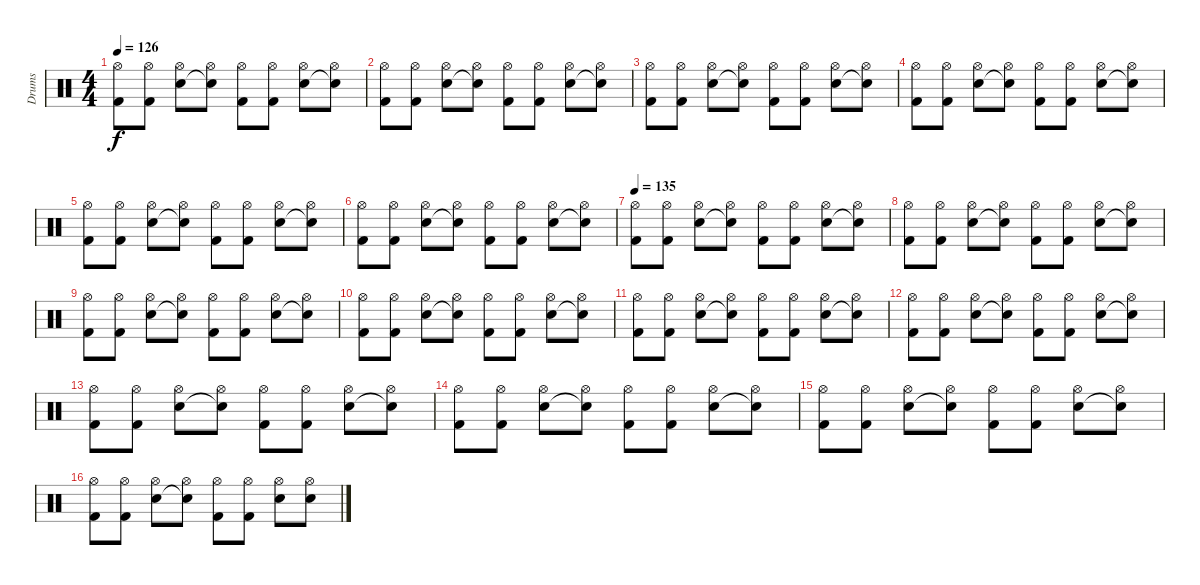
\track ("Drums" "Drums") {instrument percussion}
\staff {score}
\articulation defaults
\ts (4 4)
\tempo 126
\clef neutral
\ks c
("Hi-Hat (open)" "Kick (hit) 2").8{dy f} ("Hi-Hat (open)" "Kick (hit) 2").8 ("Hi-Hat (open)" "Snare (hit) 2").8 ("Hi-Hat (open)" "Snare (hit) 2"{t}).8 ("Hi-Hat (open)" "Kick (hit) 2").8 ("Hi-Hat (open)" "Kick (hit) 2").8 ("Hi-Hat (open)" "Snare (hit) 2").8 ("Hi-Hat (open)" "Snare (hit) 2"{t}).8 |
("Hi-Hat (open)" "Kick (hit) 2").8 ("Hi-Hat (open)" "Kick (hit) 2").8 ("Hi-Hat (open)" "Snare (hit) 2").8 ("Hi-Hat (open)" "Snare (hit) 2"{t}).8 ("Hi-Hat (open)" "Kick (hit) 2").8 ("Hi-Hat (open)" "Kick (hit) 2").8 ("Hi-Hat (open)" "Snare (hit) 2").8 ("Hi-Hat (open)" "Snare (hit) 2"{t}).8 |
("Hi-Hat (open)" "Kick (hit) 2").8 ("Hi-Hat (open)" "Kick (hit) 2").8 ("Hi-Hat (open)" "Snare (hit) 2").8 ("Hi-Hat (open)" "Snare (hit) 2"{t}).8 ("Hi-Hat (open)" "Kick (hit) 2").8 ("Hi-Hat (open)" "Kick (hit) 2").8 ("Hi-Hat (open)" "Snare (hit) 2").8 ("Hi-Hat (open)" "Snare (hit) 2"{t}).8 |
("Hi-Hat (open)" "Kick (hit) 2").8 ("Hi-Hat (open)" "Kick (hit) 2").8 ("Hi-Hat (open)" "Snare (hit) 2").8 ("Hi-Hat (open)" "Snare (hit) 2"{t}).8 ("Hi-Hat (open)" "Kick (hit) 2").8 ("Hi-Hat (open)" "Kick (hit) 2").8 ("Hi-Hat (open)" "Snare (hit) 2").8 ("Hi-Hat (open)" "Snare (hit) 2"{t}).8 |
("Hi-Hat (open)" "Kick (hit) 2").8 ("Hi-Hat (open)" "Kick (hit) 2").8 ("Hi-Hat (open)" "Snare (hit) 2").8 ("Hi-Hat (open)" "Snare (hit) 2"{t}).8 ("Hi-Hat (open)" "Kick (hit) 2").8 ("Hi-Hat (open)" "Kick (hit) 2").8 ("Hi-Hat (open)" "Snare (hit) 2").8 ("Hi-Hat (open)" "Snare (hit) 2"{t}).8 |
("Hi-Hat (open)" "Kick (hit) 2").8 ("Hi-Hat (open)" "Kick (hit) 2").8 ("Hi-Hat (open)" "Snare (hit) 2").8 ("Hi-Hat (open)" "Snare (hit) 2"{t}).8 ("Hi-Hat (open)" "Kick (hit) 2").8 ("Hi-Hat (open)" "Kick (hit) 2").8 ("Hi-Hat (open)" "Snare (hit) 2").8 ("Hi-Hat (open)" "Snare (hit) 2"{t}).8 |
\tempo 135
("Hi-Hat (open)" "Kick (hit) 2").8 ("Hi-Hat (open)" "Kick (hit) 2").8 ("Hi-Hat (open)" "Snare (hit) 2").8 ("Hi-Hat (open)" "Snare (hit) 2"{t}).8 ("Hi-Hat (open)" "Kick (hit) 2").8 ("Hi-Hat (open)" "Kick (hit) 2").8 ("Hi-Hat (open)" "Snare (hit) 2").8 ("Hi-Hat (open)" "Snare (hit) 2"{t}).8 |
("Hi-Hat (open)" "Kick (hit) 2").8 ("Hi-Hat (open)" "Kick (hit) 2").8 ("Hi-Hat (open)" "Snare (hit) 2").8 ("Hi-Hat (open)" "Snare (hit) 2"{t}).8 ("Hi-Hat (open)" "Kick (hit) 2").8 ("Hi-Hat (open)" "Kick (hit) 2").8 ("Hi-Hat (open)" "Snare (hit) 2").8 ("Hi-Hat (open)" "Snare (hit) 2"{t}).8 |
("Hi-Hat (open)" "Kick (hit) 2").8 ("Hi-Hat (open)" "Kick (hit) 2").8 ("Hi-Hat (open)" "Snare (hit) 2").8 ("Hi-Hat (open)" "Snare (hit) 2"{t}).8 ("Hi-Hat (open)" "Kick (hit) 2").8 ("Hi-Hat (open)" "Kick (hit) 2").8 ("Hi-Hat (open)" "Snare (hit) 2").8 ("Hi-Hat (open)" "Snare (hit) 2"{t}).8 |
("Hi-Hat (open)" "Kick (hit) 2").8 ("Hi-Hat (open)" "Kick (hit) 2").8 ("Hi-Hat (open)" "Snare (hit) 2").8 ("Hi-Hat (open)" "Snare (hit) 2"{t}).8 ("Hi-Hat (open)" "Kick (hit) 2").8 ("Hi-Hat (open)" "Kick (hit) 2").8 ("Hi-Hat (open)" "Snare (hit) 2").8 ("Hi-Hat (open)" "Snare (hit) 2"{t}).8 |
("Hi-Hat (open)" "Kick (hit) 2").8 ("Hi-Hat (open)" "Kick (hit) 2").8 ("Hi-Hat (open)" "Snare (hit) 2").8 ("Hi-Hat (open)" "Snare (hit) 2"{t}).8 ("Hi-Hat (open)" "Kick (hit) 2").8 ("Hi-Hat (open)" "Kick (hit) 2").8 ("Hi-Hat (open)" "Snare (hit) 2").8 ("Hi-Hat (open)" "Snare (hit) 2"{t}).8 |
("Hi-Hat (open)" "Kick (hit) 2").8 ("Hi-Hat (open)" "Kick (hit) 2").8 ("Hi-Hat (open)" "Snare (hit) 2").8 ("Hi-Hat (open)" "Snare (hit) 2"{t}).8 ("Hi-Hat (open)" "Kick (hit) 2").8 ("Hi-Hat (open)" "Kick (hit) 2").8 ("Hi-Hat (open)" "Snare (hit) 2").8 ("Hi-Hat (open)" "Snare (hit) 2"{t}).8 |
("Hi-Hat (open)" "Kick (hit) 2").8 ("Hi-Hat (open)" "Kick (hit) 2").8 ("Hi-Hat (open)" "Snare (hit) 2").8 ("Hi-Hat (open)" "Snare (hit) 2"{t}).8 ("Hi-Hat (open)" "Kick (hit) 2").8 ("Hi-Hat (open)" "Kick (hit) 2").8 ("Hi-Hat (open)" "Snare (hit) 2").8 ("Hi-Hat (open)" "Snare (hit) 2"{t}).8 |
("Hi-Hat (open)" "Kick (hit) 2").8 ("Hi-Hat (open)" "Kick (hit) 2").8 ("Hi-Hat (open)" "Snare (hit) 2").8 ("Hi-Hat (open)" "Snare (hit) 2"{t}).8 ("Hi-Hat (open)" "Kick (hit) 2").8 ("Hi-Hat (open)" "Kick (hit) 2").8 ("Hi-Hat (open)" "Snare (hit) 2").8 ("Hi-Hat (open)" "Snare (hit) 2"{t}).8 |
("Hi-Hat (open)" "Kick (hit) 2").8 ("Hi-Hat (open)" "Kick (hit) 2").8 ("Hi-Hat (open)" "Snare (hit) 2").8 ("Hi-Hat (open)" "Snare (hit) 2"{t}).8 ("Hi-Hat (open)" "Kick (hit) 2").8 ("Hi-Hat (open)" "Kick (hit) 2").8 ("Hi-Hat (open)" "Snare (hit) 2").8 ("Hi-Hat (open)" "Snare (hit) 2"{t}).8 |
("Hi-Hat (open)" "Kick (hit) 2").8 ("Hi-Hat (open)" "Kick (hit) 2").8 ("Hi-Hat (open)" "Snare (hit) 2").8 ("Hi-Hat (open)" "Snare (hit) 2"{t}).8 ("Hi-Hat (open)" "Kick (hit) 2").8 ("Hi-Hat (open)" "Kick (hit) 2").8 ("Hi-Hat (open)" "Snare (hit) 2").8 ("Hi-Hat (open)" "Snare (hit) 2").8
